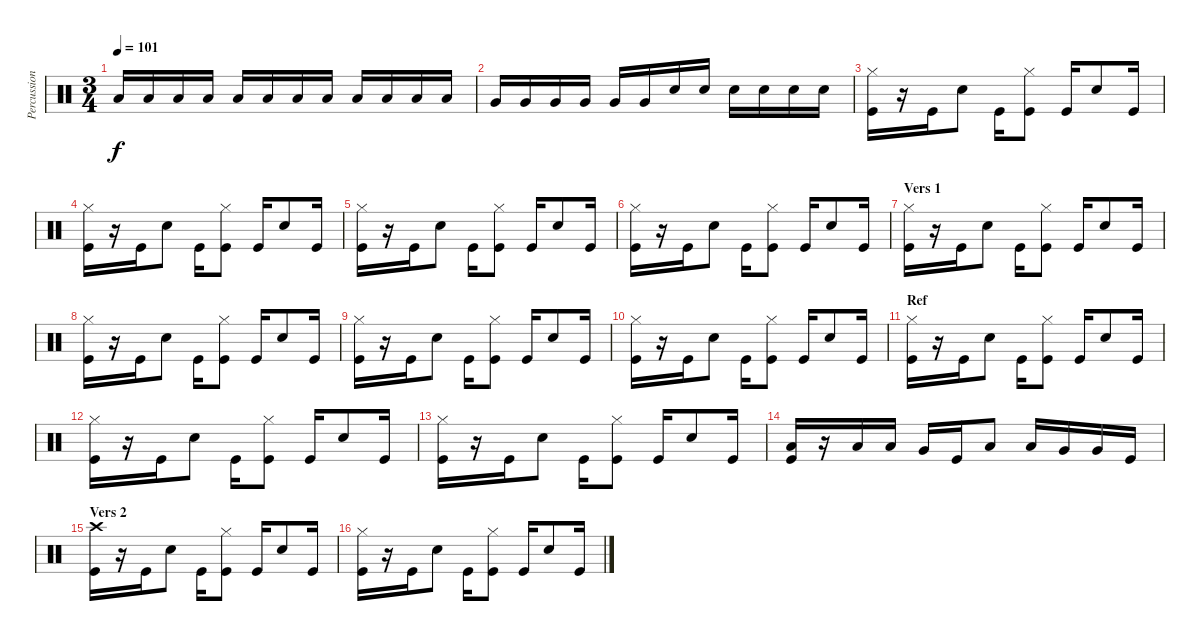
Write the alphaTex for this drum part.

\track ("Percussion" "Percussion") {instrument percussion}
\staff {score}
\articulation defaults
\ts (3 4)
\tempo 101
\clef neutral
\ks c "Low Tom (hit)".16{dy f} "Low Tom (hit)".16 "Low Tom (hit)".16 "Low Tom (hit)".16 "Low Tom (hit)".16 "Low Tom (hit)".16 "Low Tom (hit)".16 "Low Tom (hit)".16 "Low Tom (hit)".16 "Low Tom (hit)".16 "Low Tom (hit)".16 "Low Tom (hit)".16
|
"Very Low Tom (hit)".16 "Very Low Tom (hit)".16 "Very Low Tom (hit)".16 "Very Low Tom (hit)".16 "Very Low Tom (hit)".16 "Very Low Tom (hit)".16 "Electric Snare (hit)".16 "Electric Snare (hit)".16 "Electric Snare (hit)".16 "Electric Snare (hit)".16 "Electric Snare (hit)".16 "Electric Snare (hit)".16 |
("Hi-Hat (closed)" "Kick (hit)").16 r.16 "Kick (hit)".16 "Electric Snare (hit)".8 "Kick (hit)".16 ("Hi-Hat (closed)" "Kick (hit)").8 "Kick (hit)".16 "Electric Snare (hit)".8 "Kick (hit)".16 |
("Hi-Hat (closed)" "Kick (hit)").16 r.16 "Kick (hit)".16 "Electric Snare (hit)".8 "Kick (hit)".16 ("Hi-Hat (closed)" "Kick (hit)").8 "Kick (hit)".16 "Electric Snare (hit)".8 "Kick (hit)".16 |
("Hi-Hat (closed)" "Kick (hit)").16 r.16 "Kick (hit)".16 "Electric Snare (hit)".8 "Kick (hit)".16 ("Hi-Hat (closed)" "Kick (hit)").8 "Kick (hit)".16 "Electric Snare (hit)".8 "Kick (hit)".16 |
("Hi-Hat (closed)" "Kick (hit)").16 r.16 "Kick (hit)".16 "Electric Snare (hit)".8 "Kick (hit)".16 ("Hi-Hat (closed)" "Kick (hit)").8 "Kick (hit)".16 "Electric Snare (hit)".8 "Kick (hit)".16 |
\section ("" "Vers 1")
("Hi-Hat (closed)" "Kick (hit)").16 r.16 "Kick (hit)".16 "Electric Snare (hit)".8 "Kick (hit)".16 ("Hi-Hat (closed)" "Kick (hit)").8 "Kick (hit)".16 "Electric Snare (hit)".8 "Kick (hit)".16 |
("Hi-Hat (closed)" "Kick (hit)").16 r.16 "Kick (hit)".16 "Electric Snare (hit)".8 "Kick (hit)".16 ("Hi-Hat (closed)" "Kick (hit)").8 "Kick (hit)".16 "Electric Snare (hit)".8 "Kick (hit)".16 |
("Hi-Hat (closed)" "Kick (hit)").16 r.16 "Kick (hit)".16 "Electric Snare (hit)".8 "Kick (hit)".16 ("Hi-Hat (closed)" "Kick (hit)").8 "Kick (hit)".16 "Electric Snare (hit)".8 "Kick (hit)".16 |
("Hi-Hat (closed)" "Kick (hit)").16 r.16 "Kick (hit)".16 "Electric Snare (hit)".8 "Kick (hit)".16 ("Hi-Hat (closed)" "Kick (hit)").8 "Kick (hit)".16 "Electric Snare (hit)".8 "Kick (hit)".16 |
\section ("" "Ref")
("Hi-Hat (closed)" "Kick (hit)").16 r.16 "Kick (hit)".16 "Electric Snare (hit)".8 "Kick (hit)".16 ("Hi-Hat (closed)" "Kick (hit)").8 "Kick (hit)".16 "Electric Snare (hit)".8 "Kick (hit)".16 |
("Hi-Hat (closed)" "Kick (hit)").16 r.16 "Kick (hit)".16 "Electric Snare (hit)".8 "Kick (hit)".16 ("Hi-Hat (closed)" "Kick (hit)").8 "Kick (hit)".16 "Electric Snare (hit)".8 "Kick (hit)".16 |
("Hi-Hat (closed)" "Kick (hit)").16 r.16 "Kick (hit)".16 "Electric Snare (hit)".8 "Kick (hit)".16 ("Hi-Hat (closed)" "Kick (hit)").8 "Kick (hit)".16 "Electric Snare (hit)".8 "Kick (hit)".16 |
("Low Tom (hit)" "Kick (hit)").16 r.16 "Low Tom (hit)".16 "Low Tom (hit)".16 "Very Low Tom (hit)".16 "Kick (hit)".16 "Low Tom (hit)".8 "Low Tom (hit)".16 "Very Low Tom (hit)".16 "Very Low Tom (hit)".16 "Kick (hit)".16 |
\section ("" "Vers 2")
("Crash high (hit)" "Kick (hit)").16 r.16 "Kick (hit)".16 "Electric Snare (hit)".8 "Kick (hit)".16 ("Hi-Hat (closed)" "Kick (hit)").8 "Kick (hit)".16 "Electric Snare (hit)".8 "Kick (hit)".16 |
("Hi-Hat (closed)" "Kick (hit)").16 r.16 "Kick (hit)".16 "Electric Snare (hit)".8 "Kick (hit)".16 ("Hi-Hat (closed)" "Kick (hit)").8 "Kick (hit)".16 "Electric Snare (hit)".8 "Kick (hit)".16
